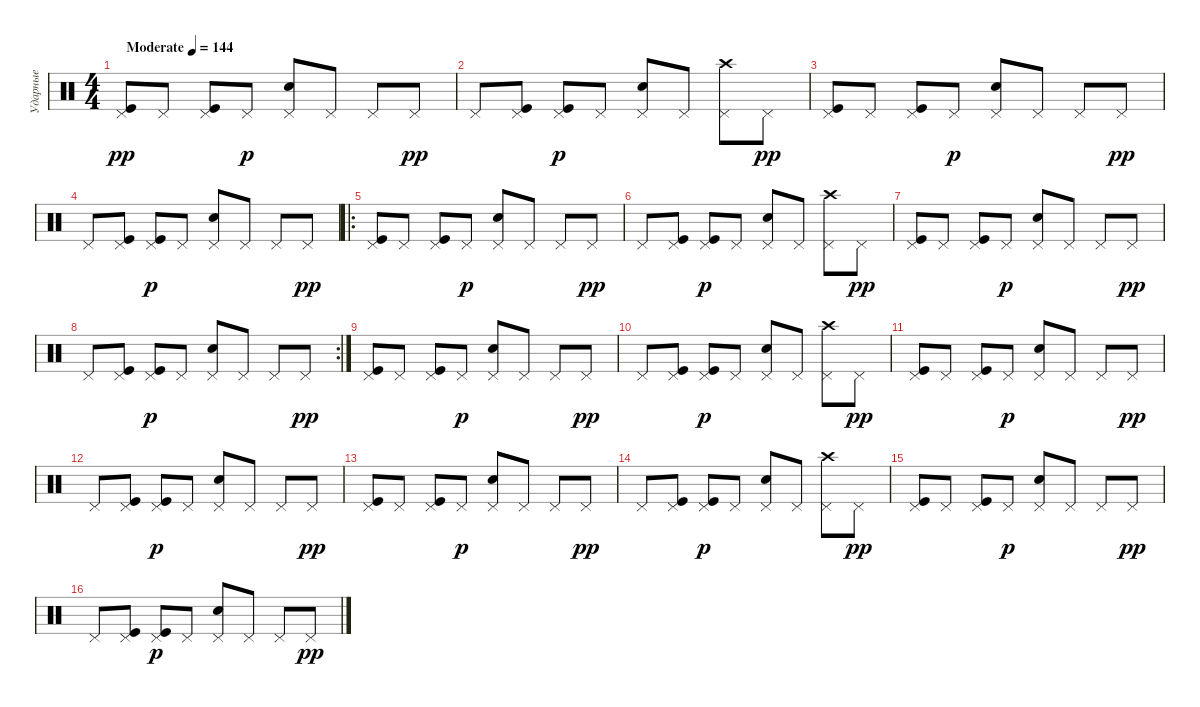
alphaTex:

\track ("Ударные" "Ударные") {instrument percussion}
\staff {score}
\articulation defaults
\ts (4 4)
\tempo (144 "Moderate")
\clef neutral
\ks c
("Kick (hit)" "Pedal Hi-Hat (hit)").8{dy pp} "Pedal Hi-Hat (hit)".8 ("Kick (hit)" "Pedal Hi-Hat (hit)").8 "Pedal Hi-Hat (hit)".8{dy p} ("Snare (hit) 2" "Pedal Hi-Hat (hit)").8 "Pedal Hi-Hat (hit)".8 "Pedal Hi-Hat (hit)".8 "Pedal Hi-Hat (hit)".8{dy pp} |
"Pedal Hi-Hat (hit)".8 ("Kick (hit)" "Pedal Hi-Hat (hit)").8 ("Kick (hit)" "Pedal Hi-Hat (hit)").8{dy p} "Pedal Hi-Hat (hit)".8 ("Snare (hit) 2" "Pedal Hi-Hat (hit)").8 "Pedal Hi-Hat (hit)".8 ("Crash high (hit)" "Pedal Hi-Hat (hit)").8 "Pedal Hi-Hat (hit)".8{dy pp} |
("Kick (hit)" "Pedal Hi-Hat (hit)").8 "Pedal Hi-Hat (hit)".8 ("Kick (hit)" "Pedal Hi-Hat (hit)").8 "Pedal Hi-Hat (hit)".8{dy p} ("Snare (hit) 2" "Pedal Hi-Hat (hit)").8 "Pedal Hi-Hat (hit)".8 "Pedal Hi-Hat (hit)".8 "Pedal Hi-Hat (hit)".8{dy pp} |
"Pedal Hi-Hat (hit)".8 ("Kick (hit)" "Pedal Hi-Hat (hit)").8 ("Kick (hit)" "Pedal Hi-Hat (hit)").8{dy p} "Pedal Hi-Hat (hit)".8 ("Snare (hit) 2" "Pedal Hi-Hat (hit)").8 "Pedal Hi-Hat (hit)".8 "Pedal Hi-Hat (hit)".8 "Pedal Hi-Hat (hit)".8{dy pp} |
\ro
("Kick (hit)" "Pedal Hi-Hat (hit)").8 "Pedal Hi-Hat (hit)".8 ("Kick (hit)" "Pedal Hi-Hat (hit)").8 "Pedal Hi-Hat (hit)".8{dy p} ("Snare (hit) 2" "Pedal Hi-Hat (hit)").8 "Pedal Hi-Hat (hit)".8 "Pedal Hi-Hat (hit)".8 "Pedal Hi-Hat (hit)".8{dy pp} |
"Pedal Hi-Hat (hit)".8 ("Kick (hit)" "Pedal Hi-Hat (hit)").8 ("Kick (hit)" "Pedal Hi-Hat (hit)").8{dy p} "Pedal Hi-Hat (hit)".8 ("Snare (hit) 2" "Pedal Hi-Hat (hit)").8 "Pedal Hi-Hat (hit)".8 ("Crash high (hit)" "Pedal Hi-Hat (hit)").8 "Pedal Hi-Hat (hit)".8{dy pp} |
("Kick (hit)" "Pedal Hi-Hat (hit)").8 "Pedal Hi-Hat (hit)".8 ("Kick (hit)" "Pedal Hi-Hat (hit)").8 "Pedal Hi-Hat (hit)".8{dy p} ("Snare (hit) 2" "Pedal Hi-Hat (hit)").8 "Pedal Hi-Hat (hit)".8 "Pedal Hi-Hat (hit)".8 "Pedal Hi-Hat (hit)".8{dy pp} |
\rc 2 "Pedal Hi-Hat (hit)".8
("Kick (hit)" "Pedal Hi-Hat (hit)").8 ("Kick (hit)" "Pedal Hi-Hat (hit)").8{dy p} "Pedal Hi-Hat (hit)".8 ("Snare (hit) 2" "Pedal Hi-Hat (hit)").8 "Pedal Hi-Hat (hit)".8 "Pedal Hi-Hat (hit)".8 "Pedal Hi-Hat (hit)".8{dy pp} |
("Kick (hit)" "Pedal Hi-Hat (hit)").8 "Pedal Hi-Hat (hit)".8 ("Kick (hit)" "Pedal Hi-Hat (hit)").8 "Pedal Hi-Hat (hit)".8{dy p} ("Snare (hit) 2" "Pedal Hi-Hat (hit)").8 "Pedal Hi-Hat (hit)".8 "Pedal Hi-Hat (hit)".8 "Pedal Hi-Hat (hit)".8{dy pp} |
"Pedal Hi-Hat (hit)".8 ("Kick (hit)" "Pedal Hi-Hat (hit)").8 ("Kick (hit)" "Pedal Hi-Hat (hit)").8{dy p} "Pedal Hi-Hat (hit)".8 ("Snare (hit) 2" "Pedal Hi-Hat (hit)").8 "Pedal Hi-Hat (hit)".8 ("Crash high (hit)" "Pedal Hi-Hat (hit)").8 "Pedal Hi-Hat (hit)".8{dy pp} |
("Kick (hit)" "Pedal Hi-Hat (hit)").8 "Pedal Hi-Hat (hit)".8 ("Kick (hit)" "Pedal Hi-Hat (hit)").8 "Pedal Hi-Hat (hit)".8{dy p} ("Snare (hit) 2" "Pedal Hi-Hat (hit)").8 "Pedal Hi-Hat (hit)".8 "Pedal Hi-Hat (hit)".8 "Pedal Hi-Hat (hit)".8{dy pp} |
"Pedal Hi-Hat (hit)".8 ("Kick (hit)" "Pedal Hi-Hat (hit)").8 ("Kick (hit)" "Pedal Hi-Hat (hit)").8{dy p} "Pedal Hi-Hat (hit)".8 ("Snare (hit) 2" "Pedal Hi-Hat (hit)").8 "Pedal Hi-Hat (hit)".8 "Pedal Hi-Hat (hit)".8 "Pedal Hi-Hat (hit)".8{dy pp} |
("Kick (hit)" "Pedal Hi-Hat (hit)").8 "Pedal Hi-Hat (hit)".8 ("Kick (hit)" "Pedal Hi-Hat (hit)").8 "Pedal Hi-Hat (hit)".8{dy p} ("Snare (hit) 2" "Pedal Hi-Hat (hit)").8 "Pedal Hi-Hat (hit)".8 "Pedal Hi-Hat (hit)".8 "Pedal Hi-Hat (hit)".8{dy pp} |
"Pedal Hi-Hat (hit)".8 ("Kick (hit)" "Pedal Hi-Hat (hit)").8 ("Kick (hit)" "Pedal Hi-Hat (hit)").8{dy p} "Pedal Hi-Hat (hit)".8 ("Snare (hit) 2" "Pedal Hi-Hat (hit)").8 "Pedal Hi-Hat (hit)".8 ("Crash high (hit)" "Pedal Hi-Hat (hit)").8 "Pedal Hi-Hat (hit)".8{dy pp} |
("Kick (hit)" "Pedal Hi-Hat (hit)").8 "Pedal Hi-Hat (hit)".8 ("Kick (hit)" "Pedal Hi-Hat (hit)").8 "Pedal Hi-Hat (hit)".8{dy p} ("Snare (hit) 2" "Pedal Hi-Hat (hit)").8 "Pedal Hi-Hat (hit)".8 "Pedal Hi-Hat (hit)".8 "Pedal Hi-Hat (hit)".8{dy pp} |
"Pedal Hi-Hat (hit)".8 ("Kick (hit)" "Pedal Hi-Hat (hit)").8 ("Kick (hit)" "Pedal Hi-Hat (hit)").8{dy p} "Pedal Hi-Hat (hit)".8 ("Snare (hit) 2" "Pedal Hi-Hat (hit)").8 "Pedal Hi-Hat (hit)".8 "Pedal Hi-Hat (hit)".8 "Pedal Hi-Hat (hit)".8{dy pp}
